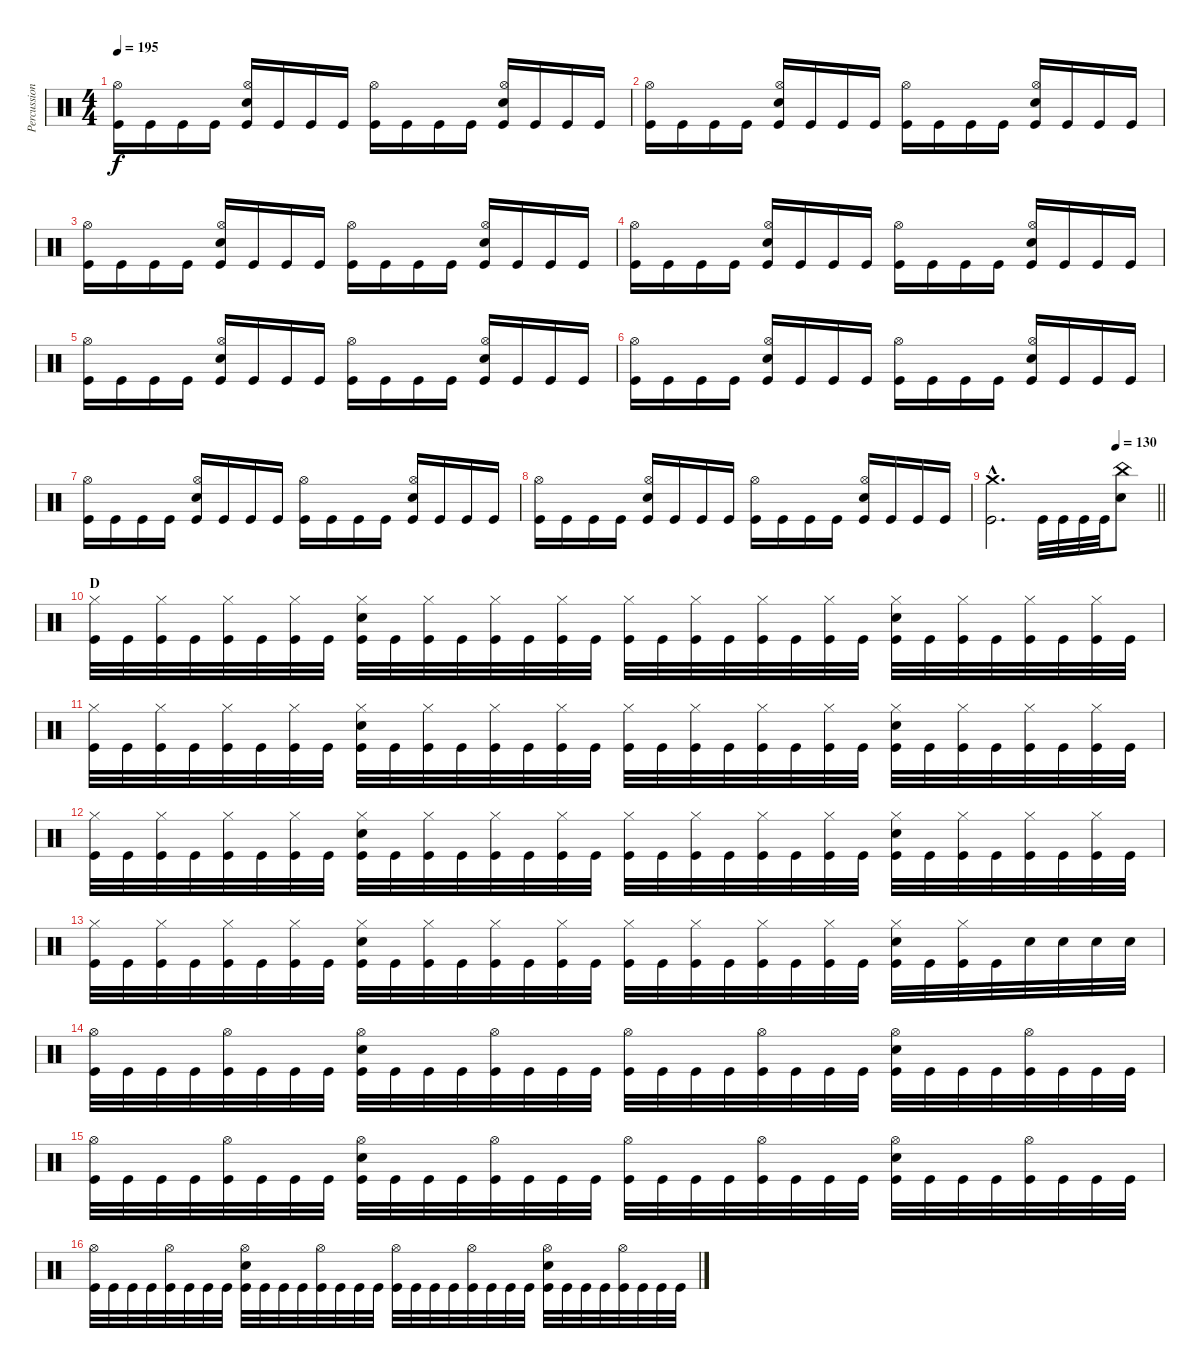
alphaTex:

\track ("Percussion" "Percussion") {instrument percussion}
\staff {score}
\articulation defaults
\ts (4 4)
\tempo 195
\clef neutral
\ks c
("Kick (hit)" "Hi-Hat (open)").16{dy f} "Kick (hit)".16 "Kick (hit)".16 "Kick (hit)".16 ("Kick (hit)" "Snare (hit) 2" "Hi-Hat (open)").16 "Kick (hit)".16 "Kick (hit)".16 "Kick (hit)".16 ("Kick (hit)" "Hi-Hat (open)").16 "Kick (hit)".16 "Kick (hit)".16 "Kick (hit)".16 ("Kick (hit)" "Snare (hit) 2" "Hi-Hat (open)").16 "Kick (hit)".16 "Kick (hit)".16 "Kick (hit)".16 |
("Kick (hit)" "Hi-Hat (open)").16 "Kick (hit)".16 "Kick (hit)".16 "Kick (hit)".16 ("Kick (hit)" "Snare (hit) 2" "Hi-Hat (open)").16 "Kick (hit)".16 "Kick (hit)".16 "Kick (hit)".16 ("Kick (hit)" "Hi-Hat (open)").16 "Kick (hit)".16 "Kick (hit)".16 "Kick (hit)".16 ("Kick (hit)" "Snare (hit) 2" "Hi-Hat (open)").16 "Kick (hit)".16 "Kick (hit)".16 "Kick (hit)".16 |
("Kick (hit)" "Hi-Hat (open)").16 "Kick (hit)".16 "Kick (hit)".16 "Kick (hit)".16 ("Kick (hit)" "Snare (hit) 2" "Hi-Hat (open)").16 "Kick (hit)".16 "Kick (hit)".16 "Kick (hit)".16 ("Kick (hit)" "Hi-Hat (open)").16 "Kick (hit)".16 "Kick (hit)".16 "Kick (hit)".16 ("Kick (hit)" "Snare (hit) 2" "Hi-Hat (open)").16 "Kick (hit)".16 "Kick (hit)".16 "Kick (hit)".16 |
("Kick (hit)" "Hi-Hat (open)").16 "Kick (hit)".16 "Kick (hit)".16 "Kick (hit)".16 ("Kick (hit)" "Snare (hit) 2" "Hi-Hat (open)").16 "Kick (hit)".16 "Kick (hit)".16 "Kick (hit)".16 ("Kick (hit)" "Hi-Hat (open)").16 "Kick (hit)".16 "Kick (hit)".16 "Kick (hit)".16 ("Kick (hit)" "Snare (hit) 2" "Hi-Hat (open)").16 "Kick (hit)".16 "Kick (hit)".16 "Kick (hit)".16 |
("Kick (hit)" "Hi-Hat (open)").16 "Kick (hit)".16 "Kick (hit)".16 "Kick (hit)".16 ("Kick (hit)" "Snare (hit) 2" "Hi-Hat (open)").16 "Kick (hit)".16 "Kick (hit)".16 "Kick (hit)".16 ("Kick (hit)" "Hi-Hat (open)").16 "Kick (hit)".16 "Kick (hit)".16 "Kick (hit)".16 ("Kick (hit)" "Snare (hit) 2" "Hi-Hat (open)").16 "Kick (hit)".16 "Kick (hit)".16 "Kick (hit)".16 |
("Kick (hit)" "Hi-Hat (open)").16 "Kick (hit)".16 "Kick (hit)".16 "Kick (hit)".16 ("Kick (hit)" "Snare (hit) 2" "Hi-Hat (open)").16 "Kick (hit)".16 "Kick (hit)".16 "Kick (hit)".16 ("Kick (hit)" "Hi-Hat (open)").16 "Kick (hit)".16 "Kick (hit)".16 "Kick (hit)".16 ("Kick (hit)" "Snare (hit) 2" "Hi-Hat (open)").16 "Kick (hit)".16 "Kick (hit)".16 "Kick (hit)".16 |
("Kick (hit)" "Hi-Hat (open)").16 "Kick (hit)".16 "Kick (hit)".16 "Kick (hit)".16 ("Kick (hit)" "Snare (hit) 2" "Hi-Hat (open)").16 "Kick (hit)".16 "Kick (hit)".16 "Kick (hit)".16 ("Kick (hit)" "Hi-Hat (open)").16 "Kick (hit)".16 "Kick (hit)".16 "Kick (hit)".16 ("Kick (hit)" "Snare (hit) 2" "Hi-Hat (open)").16 "Kick (hit)".16 "Kick (hit)".16 "Kick (hit)".16 |
("Kick (hit)" "Hi-Hat (open)").16 "Kick (hit)".16 "Kick (hit)".16 "Kick (hit)".16 ("Kick (hit)" "Snare (hit) 2" "Hi-Hat (open)").16 "Kick (hit)".16 "Kick (hit)".16 "Kick (hit)".16 ("Kick (hit)" "Hi-Hat (open)").16 "Kick (hit)".16 "Kick (hit)".16 "Kick (hit)".16 ("Kick (hit)" "Snare (hit) 2" "Hi-Hat (open)").16 "Kick (hit)".16 "Kick (hit)".16 "Kick (hit)".16 |
\tempo (130 0.75)
\barLineRight lightlight
("Kick (hit)"{hac} "Crash medium (hit)"{hac}).2{d} "Kick (hit)".32 "Kick (hit)".32 "Kick (hit)".32 "Kick (hit)".32 ("Snare (hit) 2" "China (hit)").8 |
\section ("" "D")
("Kick (hit)" "Hi-Hat (closed)").32 "Kick (hit)".32 ("Kick (hit)" "Hi-Hat (closed)").32 "Kick (hit)".32 ("Kick (hit)" "Hi-Hat (closed)").32 "Kick (hit)".32 ("Kick (hit)" "Hi-Hat (closed)").32 "Kick (hit)".32 ("Kick (hit)" "Snare (hit) 2" "Hi-Hat (closed)").32 "Kick (hit)".32 ("Kick (hit)" "Hi-Hat (closed)").32 "Kick (hit)".32 ("Kick (hit)" "Hi-Hat (closed)").32 "Kick (hit)".32 ("Kick (hit)" "Hi-Hat (closed)").32 "Kick (hit)".32 ("Kick (hit)" "Hi-Hat (closed)").32 "Kick (hit)".32 ("Kick (hit)" "Hi-Hat (closed)").32 "Kick (hit)".32 ("Kick (hit)" "Hi-Hat (closed)").32 "Kick (hit)".32 ("Kick (hit)" "Hi-Hat (closed)").32 "Kick (hit)".32 ("Kick (hit)" "Snare (hit) 2" "Hi-Hat (closed)").32 "Kick (hit)".32 ("Kick (hit)" "Hi-Hat (closed)").32 "Kick (hit)".32 ("Kick (hit)" "Hi-Hat (closed)").32 "Kick (hit)".32 ("Kick (hit)" "Hi-Hat (closed)").32 "Kick (hit)".32 |
("Kick (hit)" "Hi-Hat (closed)").32 "Kick (hit)".32 ("Kick (hit)" "Hi-Hat (closed)").32 "Kick (hit)".32 ("Kick (hit)" "Hi-Hat (closed)").32 "Kick (hit)".32 ("Kick (hit)" "Hi-Hat (closed)").32 "Kick (hit)".32 ("Kick (hit)" "Snare (hit) 2" "Hi-Hat (closed)").32 "Kick (hit)".32 ("Kick (hit)" "Hi-Hat (closed)").32 "Kick (hit)".32 ("Kick (hit)" "Hi-Hat (closed)").32 "Kick (hit)".32 ("Kick (hit)" "Hi-Hat (closed)").32 "Kick (hit)".32 ("Kick (hit)" "Hi-Hat (closed)").32 "Kick (hit)".32 ("Kick (hit)" "Hi-Hat (closed)").32 "Kick (hit)".32 ("Kick (hit)" "Hi-Hat (closed)").32 "Kick (hit)".32 ("Kick (hit)" "Hi-Hat (closed)").32 "Kick (hit)".32 ("Kick (hit)" "Snare (hit) 2" "Hi-Hat (closed)").32 "Kick (hit)".32 ("Kick (hit)" "Hi-Hat (closed)").32 "Kick (hit)".32 ("Kick (hit)" "Hi-Hat (closed)").32 "Kick (hit)".32 ("Kick (hit)" "Hi-Hat (closed)").32 "Kick (hit)".32 |
("Kick (hit)" "Hi-Hat (closed)").32 "Kick (hit)".32 ("Kick (hit)" "Hi-Hat (closed)").32 "Kick (hit)".32 ("Kick (hit)" "Hi-Hat (closed)").32 "Kick (hit)".32 ("Kick (hit)" "Hi-Hat (closed)").32 "Kick (hit)".32 ("Kick (hit)" "Snare (hit) 2" "Hi-Hat (closed)").32 "Kick (hit)".32 ("Kick (hit)" "Hi-Hat (closed)").32 "Kick (hit)".32 ("Kick (hit)" "Hi-Hat (closed)").32 "Kick (hit)".32 ("Kick (hit)" "Hi-Hat (closed)").32 "Kick (hit)".32 ("Kick (hit)" "Hi-Hat (closed)").32 "Kick (hit)".32 ("Kick (hit)" "Hi-Hat (closed)").32 "Kick (hit)".32 ("Kick (hit)" "Hi-Hat (closed)").32 "Kick (hit)".32 ("Kick (hit)" "Hi-Hat (closed)").32 "Kick (hit)".32 ("Kick (hit)" "Snare (hit) 2" "Hi-Hat (closed)").32 "Kick (hit)".32 ("Kick (hit)" "Hi-Hat (closed)").32 "Kick (hit)".32 ("Kick (hit)" "Hi-Hat (closed)").32 "Kick (hit)".32 ("Kick (hit)" "Hi-Hat (closed)").32 "Kick (hit)".32 |
("Kick (hit)" "Hi-Hat (closed)").32 "Kick (hit)".32 ("Kick (hit)" "Hi-Hat (closed)").32 "Kick (hit)".32 ("Kick (hit)" "Hi-Hat (closed)").32 "Kick (hit)".32 ("Kick (hit)" "Hi-Hat (closed)").32 "Kick (hit)".32 ("Kick (hit)" "Snare (hit) 2" "Hi-Hat (closed)").32 "Kick (hit)".32 ("Kick (hit)" "Hi-Hat (closed)").32 "Kick (hit)".32 ("Kick (hit)" "Hi-Hat (closed)").32 "Kick (hit)".32 ("Kick (hit)" "Hi-Hat (closed)").32 "Kick (hit)".32 ("Kick (hit)" "Hi-Hat (closed)").32 "Kick (hit)".32 ("Kick (hit)" "Hi-Hat (closed)").32 "Kick (hit)".32 ("Kick (hit)" "Hi-Hat (closed)").32 "Kick (hit)".32 ("Kick (hit)" "Hi-Hat (closed)").32 "Kick (hit)".32 ("Kick (hit)" "Snare (hit) 2" "Hi-Hat (closed)").32 "Kick (hit)".32 ("Kick (hit)" "Hi-Hat (closed)").32 "Kick (hit)".32 "Snare (hit) 2".32 "Snare (hit) 2".32 "Snare (hit) 2".32 "Snare (hit) 2".32 |
("Kick (hit)" "Hi-Hat (open)").32 "Kick (hit)".32 "Kick (hit)".32 "Kick (hit)".32 ("Kick (hit)" "Hi-Hat (open)").32 "Kick (hit)".32 "Kick (hit)".32 "Kick (hit)".32 ("Kick (hit)" "Snare (hit) 2" "Hi-Hat (open)").32 "Kick (hit)".32 "Kick (hit)".32 "Kick (hit)".32 ("Kick (hit)" "Hi-Hat (open)").32 "Kick (hit)".32 "Kick (hit)".32 "Kick (hit)".32 ("Kick (hit)" "Hi-Hat (open)").32 "Kick (hit)".32 "Kick (hit)".32 "Kick (hit)".32 ("Kick (hit)" "Hi-Hat (open)").32 "Kick (hit)".32 "Kick (hit)".32 "Kick (hit)".32 ("Kick (hit)" "Snare (hit) 2" "Hi-Hat (open)").32 "Kick (hit)".32 "Kick (hit)".32 "Kick (hit)".32 ("Kick (hit)" "Hi-Hat (open)").32 "Kick (hit)".32 "Kick (hit)".32 "Kick (hit)".32 |
("Kick (hit)" "Hi-Hat (open)").32 "Kick (hit)".32 "Kick (hit)".32 "Kick (hit)".32 ("Kick (hit)" "Hi-Hat (open)").32 "Kick (hit)".32 "Kick (hit)".32 "Kick (hit)".32 ("Kick (hit)" "Snare (hit) 2" "Hi-Hat (open)").32 "Kick (hit)".32 "Kick (hit)".32 "Kick (hit)".32 ("Kick (hit)" "Hi-Hat (open)").32 "Kick (hit)".32 "Kick (hit)".32 "Kick (hit)".32 ("Kick (hit)" "Hi-Hat (open)").32 "Kick (hit)".32 "Kick (hit)".32 "Kick (hit)".32 ("Kick (hit)" "Hi-Hat (open)").32 "Kick (hit)".32 "Kick (hit)".32 "Kick (hit)".32 ("Kick (hit)" "Snare (hit) 2" "Hi-Hat (open)").32 "Kick (hit)".32 "Kick (hit)".32 "Kick (hit)".32 ("Kick (hit)" "Hi-Hat (open)").32 "Kick (hit)".32 "Kick (hit)".32 "Kick (hit)".32 |
("Kick (hit)" "Hi-Hat (open)").32 "Kick (hit)".32 "Kick (hit)".32 "Kick (hit)".32 ("Kick (hit)" "Hi-Hat (open)").32 "Kick (hit)".32 "Kick (hit)".32 "Kick (hit)".32 ("Kick (hit)" "Snare (hit) 2" "Hi-Hat (open)").32 "Kick (hit)".32 "Kick (hit)".32 "Kick (hit)".32 ("Kick (hit)" "Hi-Hat (open)").32 "Kick (hit)".32 "Kick (hit)".32 "Kick (hit)".32 ("Kick (hit)" "Hi-Hat (open)").32 "Kick (hit)".32 "Kick (hit)".32 "Kick (hit)".32 ("Kick (hit)" "Hi-Hat (open)").32 "Kick (hit)".32 "Kick (hit)".32 "Kick (hit)".32 ("Kick (hit)" "Snare (hit) 2" "Hi-Hat (open)").32 "Kick (hit)".32 "Kick (hit)".32 "Kick (hit)".32 ("Kick (hit)" "Hi-Hat (open)").32 "Kick (hit)".32 "Kick (hit)".32 "Kick (hit)".32
